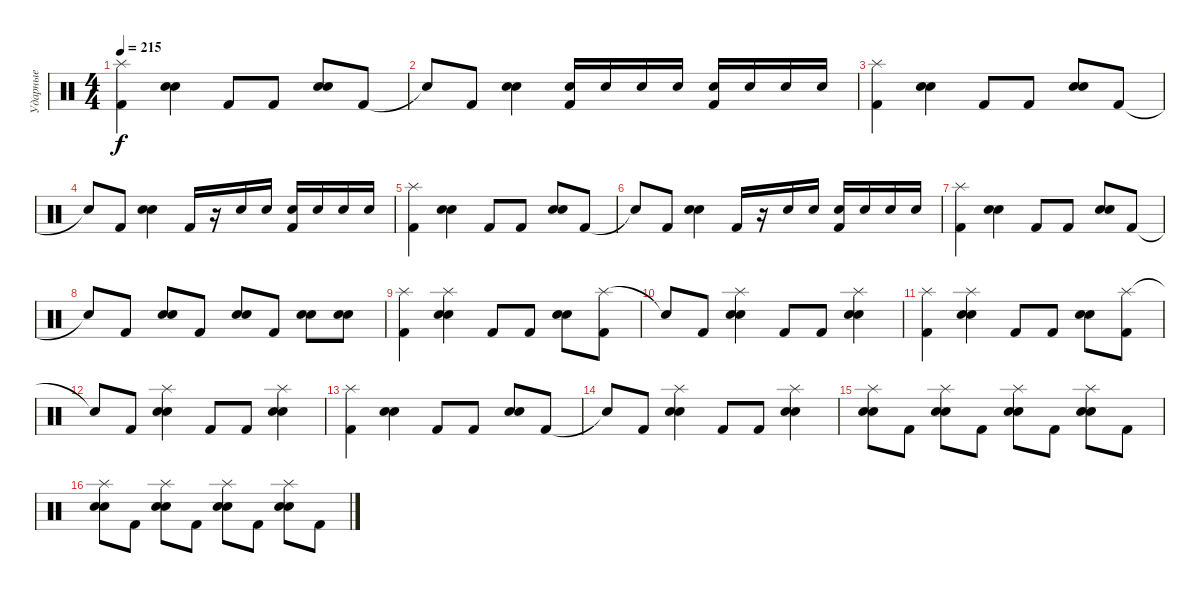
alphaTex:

\track ("Ударные" "Ударные") {instrument percussion}
\staff {score}
\articulation defaults
\ts (4 4)
\tempo 215
\clef neutral
\ks c
("Splash (hit)" "Kick (hit) 2").4{dy f} ("Electric Snare (hit)" "Snare (hit) 2").4 "Kick (hit) 2".8 "Kick (hit) 2".8 ("Electric Snare (hit)" "Snare (hit) 2").8 "Kick (hit) 2".8 |
"Snare (hit)"{t}.8 "Kick (hit) 2".8 ("Electric Snare (hit)" "Snare (hit) 2").4 ("Electric Snare (hit)" "Kick (hit) 2").16 "Electric Snare (hit)".16 "Electric Snare (hit)".16 "Electric Snare (hit)".16 ("Electric Snare (hit)" "Kick (hit) 2").16 "Electric Snare (hit)".16 "Electric Snare (hit)".16 "Electric Snare (hit)".16 |
("Splash (hit)" "Kick (hit) 2").4 ("Electric Snare (hit)" "Snare (hit) 2").4 "Kick (hit) 2".8 "Kick (hit) 2".8 ("Electric Snare (hit)" "Snare (hit) 2").8 "Kick (hit) 2".8 |
"Snare (hit)"{t}.8 "Kick (hit) 2".8 ("Electric Snare (hit)" "Snare (hit) 2").4 "Kick (hit) 2".16 r.16 "Electric Snare (hit)".16 "Electric Snare (hit)".16 ("Electric Snare (hit)" "Kick (hit) 2").16 "Electric Snare (hit)".16 "Electric Snare (hit)".16 "Electric Snare (hit)".16 |
("Splash (hit)" "Kick (hit) 2").4 ("Electric Snare (hit)" "Snare (hit) 2").4 "Kick (hit) 2".8 "Kick (hit) 2".8 ("Electric Snare (hit)" "Snare (hit) 2").8 "Kick (hit) 2".8 |
"Snare (hit)"{t}.8 "Kick (hit) 2".8 ("Electric Snare (hit)" "Snare (hit) 2").4 "Kick (hit) 2".16 r.16 "Electric Snare (hit)".16 "Electric Snare (hit)".16 ("Electric Snare (hit)" "Kick (hit) 2").16 "Electric Snare (hit)".16 "Electric Snare (hit)".16 "Electric Snare (hit)".16 |
("Splash (hit)" "Kick (hit) 2").4 ("Electric Snare (hit)" "Snare (hit) 2").4 "Kick (hit) 2".8 "Kick (hit) 2".8 ("Electric Snare (hit)" "Snare (hit) 2").8 "Kick (hit) 2".8 |
"Snare (hit)"{t}.8 "Kick (hit) 2".8 ("Electric Snare (hit)" "Snare (hit) 2").8 "Kick (hit) 2".8 ("Electric Snare (hit)" "Snare (hit) 2").8 "Kick (hit) 2".8 ("Electric Snare (hit)" "Snare (hit) 2").8 ("Electric Snare (hit)" "Snare (hit) 2").8 |
("Splash (hit)" "Kick (hit) 2").4 ("Splash (hit)" "Electric Snare (hit)" "Snare (hit) 2").4 "Kick (hit) 2".8 "Kick (hit) 2".8 ("Electric Snare (hit)" "Snare (hit) 2").8 ("Splash (hit)" "Kick (hit) 2").8 |
"Snare (hit)"{t}.8 "Kick (hit) 2".8 ("Splash (hit)" "Electric Snare (hit)" "Snare (hit) 2").4 "Kick (hit) 2".8 "Kick (hit) 2".8 ("Splash (hit)" "Electric Snare (hit)" "Snare (hit) 2").4 |
("Splash (hit)" "Kick (hit) 2").4 ("Splash (hit)" "Electric Snare (hit)" "Snare (hit) 2").4 "Kick (hit) 2".8 "Kick (hit) 2".8 ("Electric Snare (hit)" "Snare (hit) 2").8 ("Splash (hit)" "Kick (hit) 2").8 |
"Snare (hit)"{t}.8 "Kick (hit) 2".8 ("Splash (hit)" "Electric Snare (hit)" "Snare (hit) 2").4 "Kick (hit) 2".8 "Kick (hit) 2".8 ("Splash (hit)" "Electric Snare (hit)" "Snare (hit) 2").4 |
("Splash (hit)" "Kick (hit) 2").4 ("Electric Snare (hit)" "Snare (hit) 2").4 "Kick (hit) 2".8 "Kick (hit) 2".8 ("Electric Snare (hit)" "Snare (hit) 2").8 "Kick (hit) 2".8 |
"Snare (hit)"{t}.8 "Kick (hit) 2".8 ("Splash (hit)" "Electric Snare (hit)" "Snare (hit) 2").4 "Kick (hit) 2".8 "Kick (hit) 2".8 ("Splash (hit)" "Electric Snare (hit)" "Snare (hit) 2").4 |
("Splash (hit)" "Electric Snare (hit)" "Snare (hit) 2").8 "Kick (hit) 2".8 ("Splash (hit)" "Electric Snare (hit)" "Snare (hit) 2").8 "Kick (hit) 2".8 ("Splash (hit)" "Electric Snare (hit)" "Snare (hit) 2").8 "Kick (hit) 2".8 ("Splash (hit)" "Electric Snare (hit)" "Snare (hit) 2").8 "Kick (hit) 2".8 |
("Splash (hit)" "Electric Snare (hit)" "Snare (hit) 2").8 "Kick (hit) 2".8 ("Splash (hit)" "Electric Snare (hit)" "Snare (hit) 2").8 "Kick (hit) 2".8 ("Splash (hit)" "Electric Snare (hit)" "Snare (hit) 2").8 "Kick (hit) 2".8 ("Splash (hit)" "Electric Snare (hit)" "Snare (hit) 2").8 "Kick (hit) 2".8
